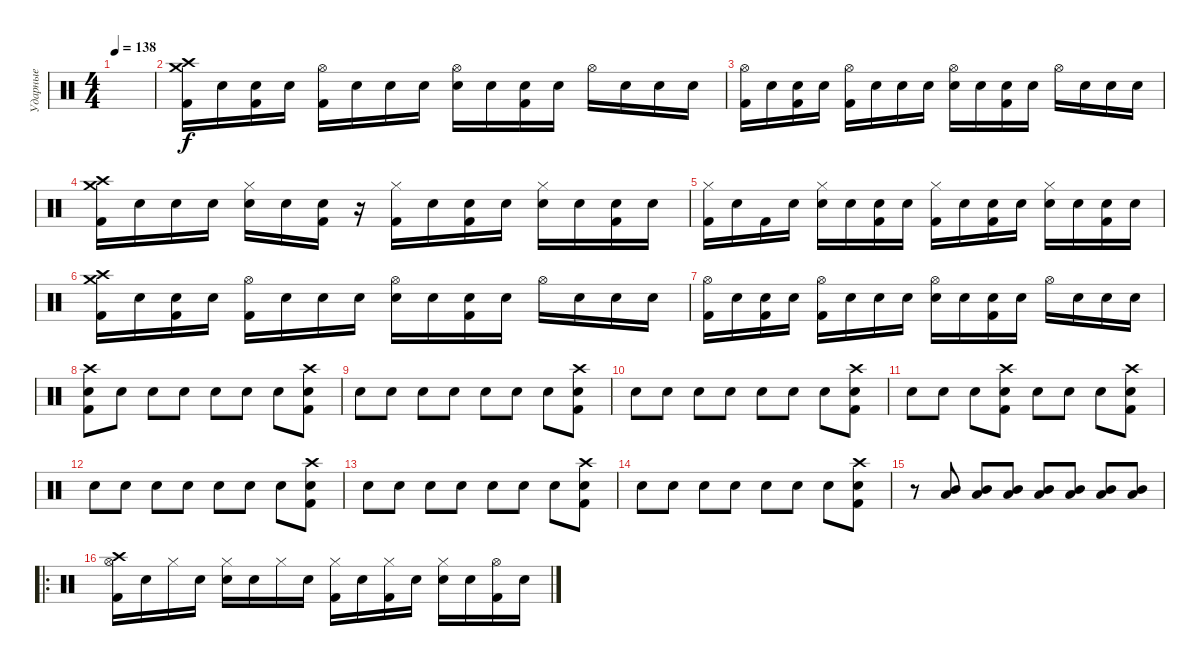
\track ("Ударные" "Ударные") {instrument percussion}
\staff {score}
\articulation defaults
\ts (4 4)
\tempo 138
\clef neutral
\ks c
|
("Crash medium (hit)" "Crash high (hit)" "Kick (hit) 2").16 "Snare (hit)".16 ("Snare (hit)" "Kick (hit) 2").16 "Snare (hit)".16 ("Hi-Hat (open)" "Kick (hit) 2").16 "Snare (hit)".16 "Snare (hit)".16 "Snare (hit)".16 ("Hi-Hat (open)" "Snare (hit) 2").16 "Snare (hit)".16 ("Snare (hit)" "Kick (hit) 2").16 "Snare (hit)".16 "Hi-Hat (open)".16 "Snare (hit)".16 "Snare (hit)".16 "Snare (hit)".16 |
("Hi-Hat (open)" "Kick (hit) 2").16 "Snare (hit)".16 ("Snare (hit)" "Kick (hit) 2").16 "Snare (hit)".16 ("Hi-Hat (open)" "Kick (hit) 2").16 "Snare (hit)".16 "Snare (hit)".16 "Snare (hit)".16 ("Hi-Hat (open)" "Snare (hit) 2").16 "Snare (hit)".16 ("Snare (hit)" "Kick (hit) 2").16 "Snare (hit)".16 "Hi-Hat (open)".16 "Snare (hit)".16 "Snare (hit)".16 "Snare (hit)".16 |
("Crash high (hit)" "Crash medium (hit)" "Kick (hit) 2").16 "Snare (hit)".16 "Snare (hit)".16 "Snare (hit)".16 ("Hi-Hat (closed)" "Snare (hit) 2").16 "Snare (hit)".16 ("Snare (hit)" "Kick (hit) 2").16 r.16 ("Hi-Hat (closed)" "Kick (hit) 2").16 "Snare (hit)".16 ("Snare (hit)" "Kick (hit) 2").16 "Snare (hit)".16 ("Hi-Hat (closed)" "Snare (hit) 2").16 "Snare (hit)".16 ("Snare (hit)" "Kick (hit) 2").16 "Snare (hit)".16 |
("Hi-Hat (closed)" "Kick (hit) 2").16 "Snare (hit)".16 "Kick (hit) 2".16 "Snare (hit)".16 ("Hi-Hat (closed)" "Snare (hit) 2").16 "Snare (hit)".16 ("Snare (hit)" "Kick (hit) 2").16 "Snare (hit)".16 ("Hi-Hat (closed)" "Kick (hit) 2").16 "Snare (hit)".16 ("Snare (hit)" "Kick (hit) 2").16 "Snare (hit)".16 ("Hi-Hat (closed)" "Snare (hit) 2").16 "Snare (hit)".16 ("Snare (hit)" "Kick (hit) 2").16 "Snare (hit)".16 |
("Crash medium (hit)" "Crash high (hit)" "Kick (hit) 2").16 "Snare (hit)".16 ("Snare (hit)" "Kick (hit) 2").16 "Snare (hit)".16 ("Hi-Hat (open)" "Kick (hit) 2").16 "Snare (hit)".16 "Snare (hit)".16 "Snare (hit)".16 ("Hi-Hat (open)" "Snare (hit) 2").16 "Snare (hit)".16 ("Snare (hit)" "Kick (hit) 2").16 "Snare (hit)".16 "Hi-Hat (open)".16 "Snare (hit)".16 "Snare (hit)".16 "Snare (hit)".16 |
("Hi-Hat (open)" "Kick (hit) 2").16 "Snare (hit)".16 ("Snare (hit)" "Kick (hit) 2").16 "Snare (hit)".16 ("Hi-Hat (open)" "Kick (hit) 2").16 "Snare (hit)".16 "Snare (hit)".16 "Snare (hit)".16 ("Hi-Hat (open)" "Snare (hit) 2").16 "Snare (hit)".16 ("Snare (hit)" "Kick (hit) 2").16 "Snare (hit)".16 "Hi-Hat (open)".16 "Snare (hit)".16 "Snare (hit)".16 "Snare (hit)".16 |
("Snare (hit)" "Crash high (hit)" "Kick (hit) 2").8 "Snare (hit)".8 "Snare (hit)".8 "Snare (hit)".8 "Snare (hit)".8 "Snare (hit)".8 "Snare (hit)".8 ("Snare (hit)" "Crash high (hit)" "Kick (hit) 2").8 |
"Snare (hit)".8 "Snare (hit)".8 "Snare (hit)".8 "Snare (hit)".8 "Snare (hit)".8 "Snare (hit)".8 "Snare (hit)".8 ("Snare (hit)" "Crash high (hit)" "Kick (hit) 2").8 |
"Snare (hit)".8 "Snare (hit)".8 "Snare (hit)".8 "Snare (hit)".8 "Snare (hit)".8 "Snare (hit)".8 "Snare (hit)".8 ("Snare (hit)" "Crash high (hit)" "Kick (hit) 2").8 |
"Snare (hit)".8 "Snare (hit)".8 "Snare (hit)".8 ("Snare (hit)" "Crash high (hit)" "Kick (hit) 2").8 "Snare (hit)".8 "Snare (hit)".8 "Snare (hit)".8 ("Snare (hit)" "Crash high (hit)" "Kick (hit) 2").8 |
"Snare (hit)".8 "Snare (hit)".8 "Snare (hit)".8 "Snare (hit)".8 "Snare (hit)".8 "Snare (hit)".8 "Snare (hit)".8 ("Snare (hit)" "Crash high (hit)" "Kick (hit) 2").8 |
"Snare (hit)".8 "Snare (hit)".8 "Snare (hit)".8 "Snare (hit)".8 "Snare (hit)".8 "Snare (hit)".8 "Snare (hit)".8 ("Snare (hit)" "Crash high (hit)" "Kick (hit) 2").8 |
"Snare (hit)".8 "Snare (hit)".8 "Snare (hit)".8 "Snare (hit)".8 "Snare (hit)".8 "Snare (hit)".8 "Snare (hit)".8 ("Snare (hit)" "Crash high (hit)" "Kick (hit) 2").8 |
r.8 ("Mid Tom (hit)" "Low Tom (hit)").8 ("Low Tom (hit)" "Mid Tom (hit)").8 ("Low Tom (hit)" "Mid Tom (hit)").8 ("Low Tom (hit)" "Mid Tom (hit)").8 ("Low Tom (hit)" "Mid Tom (hit)").8 ("Low Tom (hit)" "Mid Tom (hit)").8 ("Low Tom (hit)" "Mid Tom (hit)").8 |
\ro
("Hi-Hat (open)" "Crash high (hit)" "Kick (hit) 2").16 "Snare (hit)".16 "Hi-Hat (closed)".16 "Snare (hit)".16 ("Hi-Hat (closed)" "Snare (hit) 2").16 "Snare (hit)".16 "Hi-Hat (closed)".16 "Snare (hit)".16 ("Hi-Hat (closed)" "Kick (hit) 2").16 "Snare (hit)".16 ("Hi-Hat (closed)" "Kick (hit) 2").16 "Snare (hit)".16 ("Hi-Hat (closed)" "Snare (hit) 2").16 "Snare (hit)".16 ("Hi-Hat (open)" "Kick (hit) 2").16 "Snare (hit)".16
